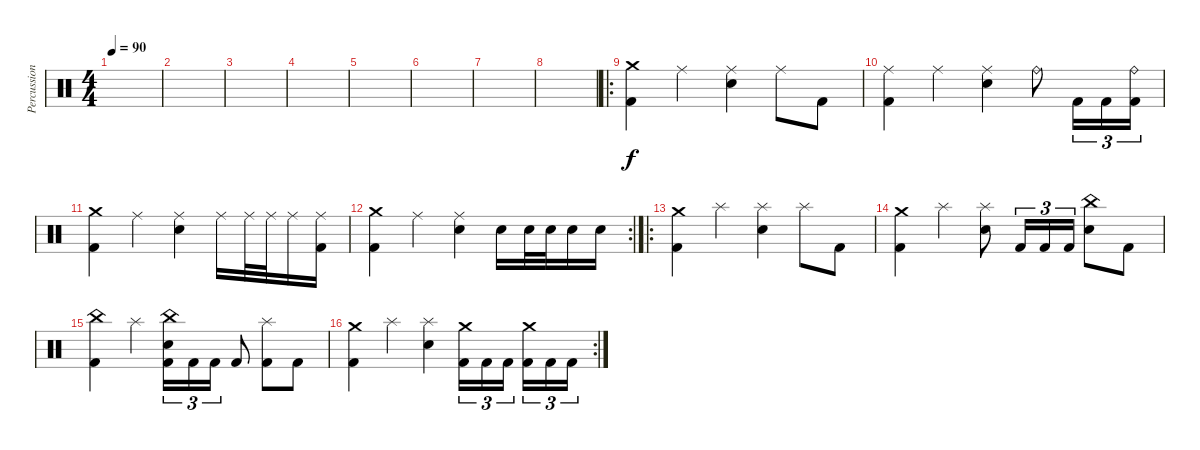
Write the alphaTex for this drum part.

\track ("Percussion" "Percussion") {instrument percussion}
\staff {score}
\articulation defaults
\ts (4 4)
\tempo 90
\clef neutral
\ks c
|
|
|
|
|
|
|
|
\ro
("Kick (hit) 2" "Crash medium (hit)").4 "Ride (middle)".4 ("Electric Snare (hit)" "Ride (middle)").4 "Ride (middle)".8 "Kick (hit) 2".8 |
("Kick (hit) 2" "Ride (middle)").4 "Ride (middle)".4 ("Electric Snare (hit)" "Ride (middle)").4 "Ride (bell)".8 "Kick (hit) 2".16{tu (3 2)} "Kick (hit) 2".16{tu (3 2)} ("Kick (hit) 2" "Ride (bell)").16{tu (3 2)} |
("Kick (hit) 2" "Crash medium (hit)").4 "Ride (middle)".4 ("Electric Snare (hit)" "Ride (middle)").4 "Ride (middle)".16 "Ride (middle)".32 "Ride (middle)".32 "Ride (middle)".16 ("Kick (hit) 2" "Ride (middle)").16 |
\rc 2
("Kick (hit) 2" "Crash medium (hit)").4 "Ride (middle)".4 ("Electric Snare (hit)" "Ride (middle)").4 "Electric Snare (hit)".16 "Electric Snare (hit)".32 "Electric Snare (hit)".32 "Electric Snare (hit)".16 "Electric Snare (hit)".16 |
\ro
("Kick (hit) 2" "Crash medium (hit)").4 "Splash (hit)".4 ("Electric Snare (hit)" "Splash (hit)").4 "Splash (hit)".8 "Kick (hit) 2".8 |
("Kick (hit) 2" "Crash medium (hit)").4 "Splash (hit)".4 ("Electric Snare (hit)" "Splash (hit)").8 "Kick (hit) 2".16{tu (3 2)} "Kick (hit) 2".16{tu (3 2)} "Kick (hit) 2".16{tu (3 2)} ("Electric Snare (hit)" "China (hit)").8 "Kick (hit) 2".8 |
("Kick (hit) 2" "China (hit)").4 "Splash (hit)".4 ("Kick (hit) 2" "Electric Snare (hit)" "China (hit)").16{tu (3 2)} "Kick (hit) 2".16{tu (3 2)} "Kick (hit) 2".16{tu (3 2)} "Kick (hit) 2".8 ("Kick (hit) 2" "Splash (hit)").8 "Kick (hit) 2".8 |
\rc 2
("Kick (hit) 2" "Crash medium (hit)").4 "Splash (hit)".4 ("Electric Snare (hit)" "Splash (hit)").4 ("Kick (hit) 2" "Crash medium (hit)").16{tu (3 2)} "Kick (hit) 2".16{tu (3 2)} "Kick (hit) 2".16{tu (3 2)} ("Kick (hit) 2" "Crash medium (hit)").16{tu (3 2)} "Kick (hit) 2".16{tu (3 2)} "Kick (hit) 2".16{tu (3 2)}
